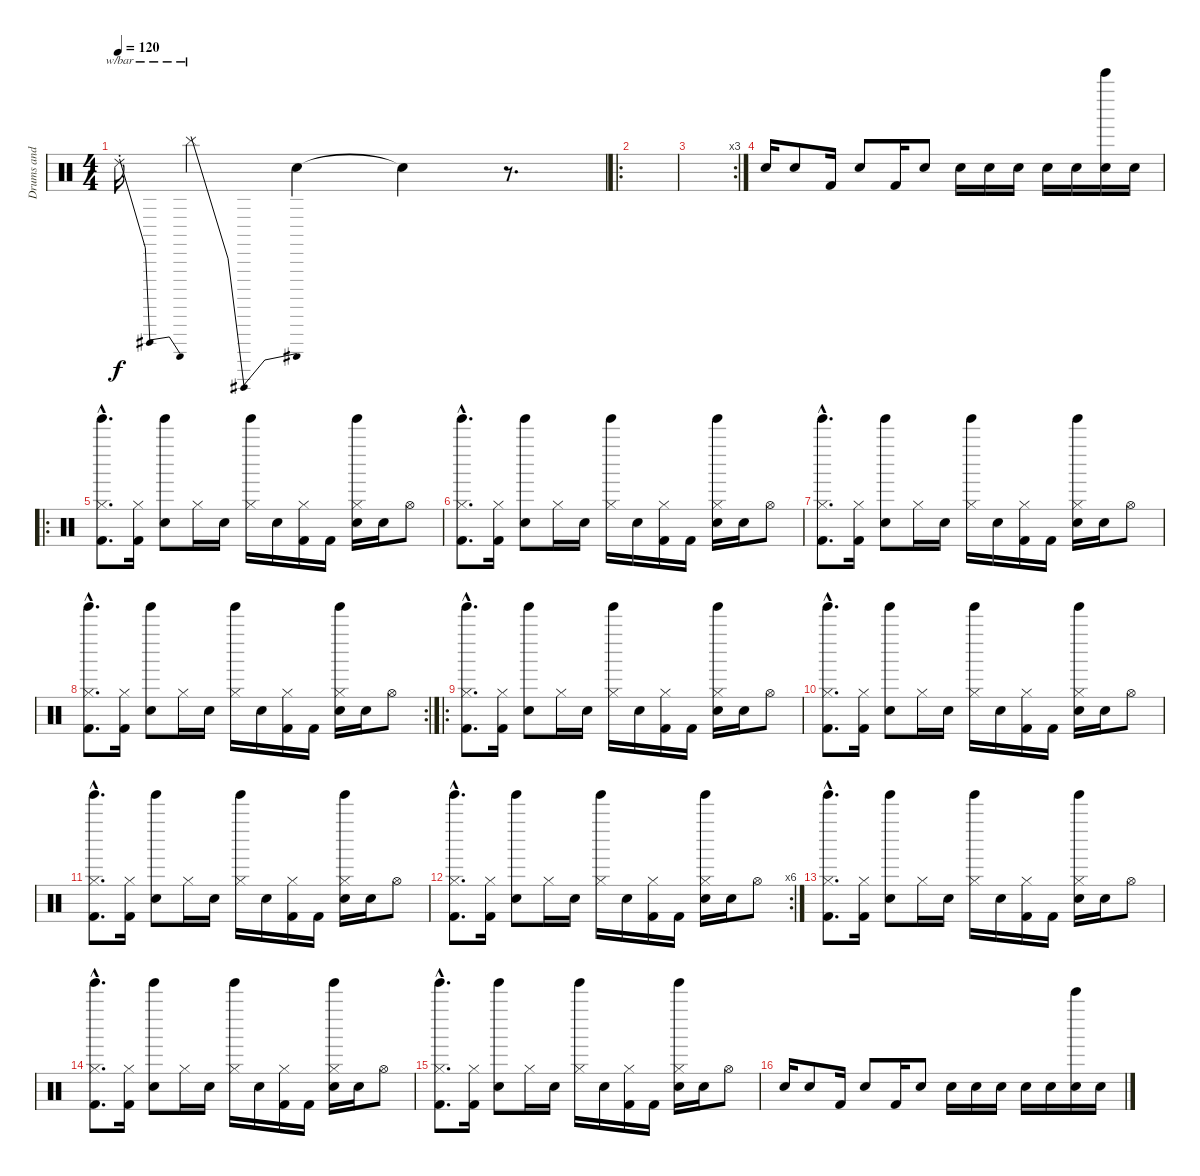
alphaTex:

\track ("Drums and Percussion" "Drums and ") {instrument percussion}
\staff {score}
\articulation defaults
\ts (4 4)
\tempo 120
\clef neutral
\ks c "Ride (choke) 2".16{tbe (dip default 0 0 30 12 60 0) dy f} "Cymbal (hit)".4{tbe (dip default 0 0 30 -24 60 0)} "Snare (hit)"{t}.4 "Snare (hit)"{t}.4
r.8{d} |
\ro
|
\rc 3
|
"Electric Snare (hit)".16 "Electric Snare (hit)".8 "Kick (hit) 2".16 "Electric Snare (hit)".8 "Kick (hit) 2".16 "Electric Snare (hit)".8 "Electric Snare (hit)".16 "Electric Snare (hit)".16 "Electric Snare (hit)".16 "Electric Snare (hit)".16 "Electric Snare (hit)".16 ("Electric Snare (hit)" "Bell Tree (hit)").16 "Electric Snare (hit)".16 |
\ro
("Kick (hit) 2"{hac} "Hi-Hat (closed)"{hac} "Tinkle Bell (hit)"{hac}).8{d} ("Kick (hit) 2" "Hi-Hat (closed)").16 ("Electric Snare (hit)" "Tinkle Bell (hit)").8 "Hi-Hat (closed)".16 "Electric Snare (hit)".16 ("Hi-Hat (closed)" "Tinkle Bell (hit)").16 "Electric Snare (hit)".16 ("Kick (hit) 2" "Hi-Hat (closed)").16 "Kick (hit) 2".16 ("Electric Snare (hit)" "Hi-Hat (closed)" "Tinkle Bell (hit)").16 "Electric Snare (hit)".16 "Hi-Hat (open)".8 |
("Kick (hit) 2"{hac} "Hi-Hat (closed)"{hac} "Tinkle Bell (hit)"{hac}).8{d} ("Kick (hit) 2" "Hi-Hat (closed)").16 ("Electric Snare (hit)" "Tinkle Bell (hit)").8 "Hi-Hat (closed)".16 "Electric Snare (hit)".16 ("Hi-Hat (closed)" "Tinkle Bell (hit)").16 "Electric Snare (hit)".16 ("Kick (hit) 2" "Hi-Hat (closed)").16 "Kick (hit) 2".16 ("Electric Snare (hit)" "Hi-Hat (closed)" "Tinkle Bell (hit)").16 "Electric Snare (hit)".16 "Hi-Hat (open)".8 |
("Kick (hit) 2"{hac} "Hi-Hat (closed)"{hac} "Tinkle Bell (hit)"{hac}).8{d} ("Kick (hit) 2" "Hi-Hat (closed)").16 ("Electric Snare (hit)" "Tinkle Bell (hit)").8 "Hi-Hat (closed)".16 "Electric Snare (hit)".16 ("Hi-Hat (closed)" "Tinkle Bell (hit)").16 "Electric Snare (hit)".16 ("Kick (hit) 2" "Hi-Hat (closed)").16 "Kick (hit) 2".16 ("Electric Snare (hit)" "Hi-Hat (closed)" "Tinkle Bell (hit)").16 "Electric Snare (hit)".16 "Hi-Hat (open)".8 |
\rc 2
("Kick (hit) 2"{hac} "Hi-Hat (closed)"{hac} "Tinkle Bell (hit)"{hac}).8{d} ("Kick (hit) 2" "Hi-Hat (closed)").16 ("Electric Snare (hit)" "Tinkle Bell (hit)").8 "Hi-Hat (closed)".16 "Electric Snare (hit)".16 ("Hi-Hat (closed)" "Tinkle Bell (hit)").16 "Electric Snare (hit)".16 ("Kick (hit) 2" "Hi-Hat (closed)").16 "Kick (hit) 2".16 ("Electric Snare (hit)" "Hi-Hat (closed)" "Tinkle Bell (hit)").16 "Electric Snare (hit)".16 "Hi-Hat (open)".8 |
\ro
("Kick (hit) 2"{hac} "Hi-Hat (closed)"{hac} "Tinkle Bell (hit)"{hac}).8{d} ("Kick (hit) 2" "Hi-Hat (closed)").16 ("Electric Snare (hit)" "Tinkle Bell (hit)").8 "Hi-Hat (closed)".16 "Electric Snare (hit)".16 ("Hi-Hat (closed)" "Tinkle Bell (hit)").16 "Electric Snare (hit)".16 ("Kick (hit) 2" "Hi-Hat (closed)").16 "Kick (hit) 2".16 ("Electric Snare (hit)" "Hi-Hat (closed)" "Tinkle Bell (hit)").16 "Electric Snare (hit)".16 "Hi-Hat (open)".8 |
("Kick (hit) 2"{hac} "Hi-Hat (closed)"{hac} "Tinkle Bell (hit)"{hac}).8{d} ("Kick (hit) 2" "Hi-Hat (closed)").16 ("Electric Snare (hit)" "Tinkle Bell (hit)").8 "Hi-Hat (closed)".16 "Electric Snare (hit)".16 ("Hi-Hat (closed)" "Tinkle Bell (hit)").16 "Electric Snare (hit)".16 ("Kick (hit) 2" "Hi-Hat (closed)").16 "Kick (hit) 2".16 ("Electric Snare (hit)" "Hi-Hat (closed)" "Tinkle Bell (hit)").16 "Electric Snare (hit)".16 "Hi-Hat (open)".8 |
("Kick (hit) 2"{hac} "Hi-Hat (closed)"{hac} "Tinkle Bell (hit)"{hac}).8{d} ("Kick (hit) 2" "Hi-Hat (closed)").16 ("Electric Snare (hit)" "Tinkle Bell (hit)").8 "Hi-Hat (closed)".16 "Electric Snare (hit)".16 ("Hi-Hat (closed)" "Tinkle Bell (hit)").16 "Electric Snare (hit)".16 ("Kick (hit) 2" "Hi-Hat (closed)").16 "Kick (hit) 2".16 ("Electric Snare (hit)" "Hi-Hat (closed)" "Tinkle Bell (hit)").16 "Electric Snare (hit)".16 "Hi-Hat (open)".8 |
\rc 6
("Kick (hit) 2"{hac} "Hi-Hat (closed)"{hac} "Tinkle Bell (hit)"{hac}).8{d} ("Kick (hit) 2" "Hi-Hat (closed)").16 ("Electric Snare (hit)" "Tinkle Bell (hit)").8 "Hi-Hat (closed)".16 "Electric Snare (hit)".16 ("Hi-Hat (closed)" "Tinkle Bell (hit)").16 "Electric Snare (hit)".16 ("Kick (hit) 2" "Hi-Hat (closed)").16 "Kick (hit) 2".16 ("Electric Snare (hit)" "Hi-Hat (closed)" "Tinkle Bell (hit)").16 "Electric Snare (hit)".16 "Hi-Hat (open)".8 |
("Kick (hit) 2"{hac} "Hi-Hat (closed)"{hac} "Tinkle Bell (hit)"{hac}).8{d} ("Kick (hit) 2" "Hi-Hat (closed)").16 ("Electric Snare (hit)" "Tinkle Bell (hit)").8 "Hi-Hat (closed)".16 "Electric Snare (hit)".16 ("Hi-Hat (closed)" "Tinkle Bell (hit)").16 "Electric Snare (hit)".16 ("Kick (hit) 2" "Hi-Hat (closed)").16 "Kick (hit) 2".16 ("Electric Snare (hit)" "Hi-Hat (closed)" "Tinkle Bell (hit)").16 "Electric Snare (hit)".16 "Hi-Hat (open)".8 |
("Kick (hit) 2"{hac} "Hi-Hat (closed)"{hac} "Tinkle Bell (hit)"{hac}).8{d} ("Kick (hit) 2" "Hi-Hat (closed)").16 ("Electric Snare (hit)" "Tinkle Bell (hit)").8 "Hi-Hat (closed)".16 "Electric Snare (hit)".16 ("Hi-Hat (closed)" "Tinkle Bell (hit)").16 "Electric Snare (hit)".16 ("Kick (hit) 2" "Hi-Hat (closed)").16 "Kick (hit) 2".16 ("Electric Snare (hit)" "Hi-Hat (closed)" "Tinkle Bell (hit)").16 "Electric Snare (hit)".16 "Hi-Hat (open)".8 |
("Kick (hit) 2"{hac} "Hi-Hat (closed)"{hac} "Tinkle Bell (hit)"{hac}).8{d} ("Kick (hit) 2" "Hi-Hat (closed)").16 ("Electric Snare (hit)" "Tinkle Bell (hit)").8 "Hi-Hat (closed)".16 "Electric Snare (hit)".16 ("Hi-Hat (closed)" "Tinkle Bell (hit)").16 "Electric Snare (hit)".16 ("Kick (hit) 2" "Hi-Hat (closed)").16 "Kick (hit) 2".16 ("Electric Snare (hit)" "Hi-Hat (closed)" "Tinkle Bell (hit)").16 "Electric Snare (hit)".16 "Hi-Hat (open)".8 |
"Electric Snare (hit)".16 "Electric Snare (hit)".8 "Kick (hit) 2".16 "Electric Snare (hit)".8 "Kick (hit) 2".16 "Electric Snare (hit)".8 "Electric Snare (hit)".16 "Electric Snare (hit)".16 "Electric Snare (hit)".16 "Electric Snare (hit)".16 "Electric Snare (hit)".16 ("Electric Snare (hit)" "Bell Tree (hit)").16 "Electric Snare (hit)".16
